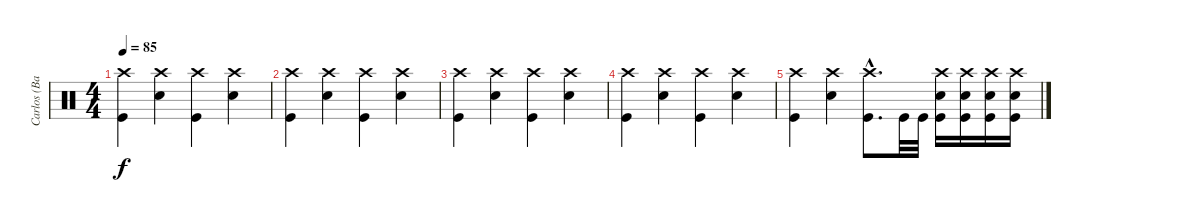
\track ("Carlos (Batería)" "Carlos (Ba") {instrument percussion}
\staff {score}
\articulation defaults
\ts (4 4)
\tempo 85
\clef neutral
\ks c
("Crash high (hit)" "Kick (hit)").4{dy f} ("Crash high (hit)" "Snare (hit) 2").4 ("Crash high (hit)" "Kick (hit)").4 ("Crash high (hit)" "Snare (hit) 2").4 |
("Crash high (hit)" "Kick (hit)").4 ("Crash high (hit)" "Snare (hit) 2").4 ("Crash high (hit)" "Kick (hit)").4 ("Crash high (hit)" "Snare (hit) 2").4 |
("Crash high (hit)" "Kick (hit)").4 ("Crash high (hit)" "Snare (hit) 2").4 ("Crash high (hit)" "Kick (hit)").4 ("Crash high (hit)" "Snare (hit) 2").4 |
("Crash high (hit)" "Kick (hit)").4 ("Crash high (hit)" "Snare (hit) 2").4 ("Crash high (hit)" "Kick (hit)").4 ("Crash high (hit)" "Snare (hit) 2").4 |
("Crash high (hit)" "Kick (hit)").4 ("Crash high (hit)" "Snare (hit) 2").4 ("Crash high (hit)"{hac} "Kick (hit)"{hac}).8{d} "Kick (hit)".32 "Kick (hit)".32 ("Snare (hit) 2" "Crash high (hit)" "Kick (hit)").16 ("Snare (hit) 2" "Crash high (hit)" "Kick (hit)").16 ("Snare (hit) 2" "Crash high (hit)" "Kick (hit)").16 ("Snare (hit) 2" "Crash high (hit)" "Kick (hit)").16
